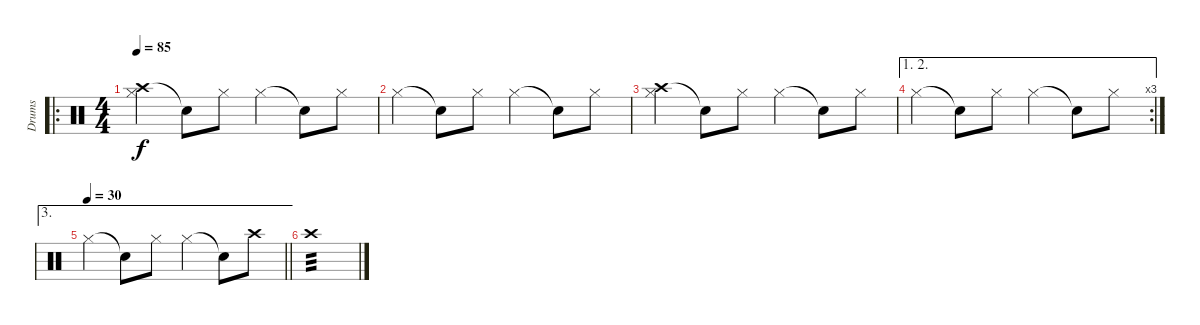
\track ("Drums" "Drums") {instrument percussion}
\staff {score}
\articulation defaults
\ro
\ts (4 4)
\tempo 85
\clef neutral
\ks c
("Crash high (hit)" "Hi-Hat (closed)").4{dy f volume 11} "Snare (hit)"{t}.8 "Hi-Hat (closed)".8 "Hi-Hat (closed)".4 "Snare (hit)"{t}.8 "Hi-Hat (closed)".8 |
"Hi-Hat (closed)".4 "Snare (hit)"{t}.8 "Hi-Hat (closed)".8 "Hi-Hat (closed)".4 "Snare (hit)"{t}.8 "Hi-Hat (closed)".8 |
("Crash high (hit)" "Hi-Hat (closed)").4 "Snare (hit)"{t}.8 "Hi-Hat (closed)".8 "Hi-Hat (closed)".4 "Snare (hit)"{t}.8 "Hi-Hat (closed)".8 |
\ae (1 2)
\rc 3 "Hi-Hat (closed)".4 "Snare (hit)"{t}.8 "Hi-Hat (closed)".8 "Hi-Hat (closed)".4 "Snare (hit)"{t}.8 "Hi-Hat (closed)".8
|
\ae 3
\tempo 30
\barLineRight lightlight "Hi-Hat (closed)".4 "Snare (hit)"{t}.8 "Hi-Hat (closed)".8 "Hi-Hat (closed)".4 "Snare (hit)"{t}.8 "Crash high (hit)".8
|
"Crash high (hit)".1{tp 3 volume 1}
